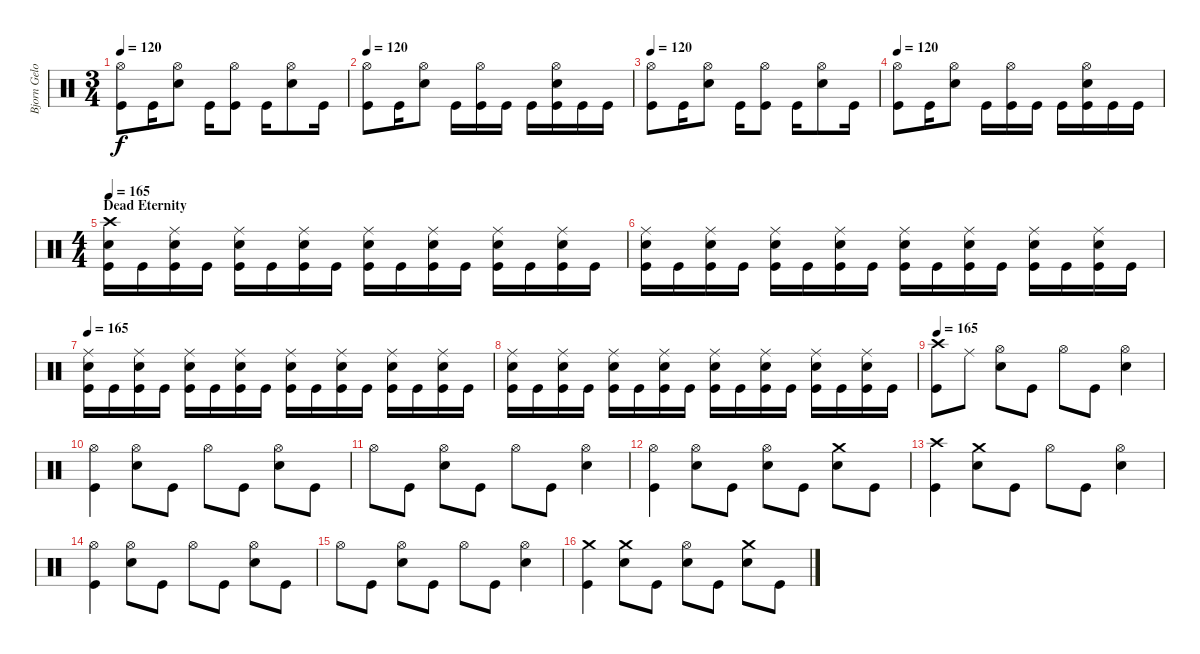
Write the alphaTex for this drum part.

\track ("Bjorn Gelotte-Drum" "Bjorn Gelo") {instrument percussion}
\staff {score}
\articulation defaults
\ts (3 4)
\tempo 120
\clef neutral
\ks c
("Hi-Hat (open)" "Kick (hit)").8{dy f} "Kick (hit)".16 ("Hi-Hat (open)" "Electric Snare (hit)").8 "Kick (hit)".16 ("Hi-Hat (open)" "Kick (hit)").8 "Kick (hit)".16 ("Hi-Hat (open)" "Electric Snare (hit)").8 "Kick (hit)".16 |
\tempo 120
("Hi-Hat (open)" "Kick (hit)").8 "Kick (hit)".16 ("Hi-Hat (open)" "Electric Snare (hit)").8 "Kick (hit)".16 ("Hi-Hat (open)" "Kick (hit)").16 "Kick (hit)".16 "Kick (hit)".16 ("Hi-Hat (open)" "Electric Snare (hit)" "Kick (hit)").16 "Kick (hit)".16 "Kick (hit)".16 |
\tempo 120
("Hi-Hat (open)" "Kick (hit)").8 "Kick (hit)".16 ("Hi-Hat (open)" "Electric Snare (hit)").8 "Kick (hit)".16 ("Hi-Hat (open)" "Kick (hit)").8 "Kick (hit)".16 ("Hi-Hat (open)" "Electric Snare (hit)").8 "Kick (hit)".16 |
\tempo 120
("Hi-Hat (open)" "Kick (hit)").8 "Kick (hit)".16 ("Hi-Hat (open)" "Electric Snare (hit)").8 "Kick (hit)".16 ("Hi-Hat (open)" "Kick (hit)").16 "Kick (hit)".16 "Kick (hit)".16 ("Hi-Hat (open)" "Electric Snare (hit)" "Kick (hit)").16 "Kick (hit)".16 "Kick (hit)".16 |
\ts (4 4)
\section ("" "Dead Eternity")
\tempo 165
("Crash high (hit)" "Electric Snare (hit)" "Kick (hit)").16 "Kick (hit)".16 ("Ride (middle)" "Electric Snare (hit)" "Kick (hit)").16 "Kick (hit)".16 ("Ride (middle)" "Electric Snare (hit)" "Kick (hit)").16 "Kick (hit)".16 ("Ride (middle)" "Electric Snare (hit)" "Kick (hit)").16 "Kick (hit)".16 ("Ride (middle)" "Electric Snare (hit)" "Kick (hit)").16 "Kick (hit)".16 ("Ride (middle)" "Electric Snare (hit)" "Kick (hit)").16 "Kick (hit)".16 ("Ride (middle)" "Electric Snare (hit)" "Kick (hit)").16 "Kick (hit)".16 ("Ride (middle)" "Electric Snare (hit)" "Kick (hit)").16 "Kick (hit)".16 |
("Ride (middle)" "Electric Snare (hit)" "Kick (hit)").16 "Kick (hit)".16 ("Ride (middle)" "Electric Snare (hit)" "Kick (hit)").16 "Kick (hit)".16 ("Ride (middle)" "Electric Snare (hit)" "Kick (hit)").16 "Kick (hit)".16 ("Ride (middle)" "Electric Snare (hit)" "Kick (hit)").16 "Kick (hit)".16 ("Ride (middle)" "Electric Snare (hit)" "Kick (hit)").16 "Kick (hit)".16 ("Ride (middle)" "Electric Snare (hit)" "Kick (hit)").16 "Kick (hit)".16 ("Ride (middle)" "Electric Snare (hit)" "Kick (hit)").16 "Kick (hit)".16 ("Ride (middle)" "Electric Snare (hit)" "Kick (hit)").16 "Kick (hit)".16 |
\tempo 165
("Ride (middle)" "Electric Snare (hit)" "Kick (hit)").16 "Kick (hit)".16 ("Ride (middle)" "Electric Snare (hit)" "Kick (hit)").16 "Kick (hit)".16 ("Ride (middle)" "Electric Snare (hit)" "Kick (hit)").16 "Kick (hit)".16 ("Ride (middle)" "Electric Snare (hit)" "Kick (hit)").16 "Kick (hit)".16 ("Ride (middle)" "Electric Snare (hit)" "Kick (hit)").16 "Kick (hit)".16 ("Ride (middle)" "Electric Snare (hit)" "Kick (hit)").16 "Kick (hit)".16 ("Ride (middle)" "Electric Snare (hit)" "Kick (hit)").16 "Kick (hit)".16 ("Ride (middle)" "Electric Snare (hit)" "Kick (hit)").16 "Kick (hit)".16 |
("Ride (middle)" "Electric Snare (hit)" "Kick (hit)").16 "Kick (hit)".16 ("Ride (middle)" "Electric Snare (hit)" "Kick (hit)").16 "Kick (hit)".16 ("Ride (middle)" "Electric Snare (hit)" "Kick (hit)").16 "Kick (hit)".16 ("Ride (middle)" "Electric Snare (hit)" "Kick (hit)").16 "Kick (hit)".16 ("Ride (middle)" "Electric Snare (hit)" "Kick (hit)").16 "Kick (hit)".16 ("Ride (middle)" "Electric Snare (hit)" "Kick (hit)").16 "Kick (hit)".16 ("Ride (middle)" "Electric Snare (hit)" "Kick (hit)").16 "Kick (hit)".16 ("Ride (middle)" "Electric Snare (hit)" "Kick (hit)").16 "Kick (hit)".16 |
\tempo 165
("Crash high (hit)" "Kick (hit)").8 "Ride (middle)".8 ("Hi-Hat (open)" "Electric Snare (hit)").8 "Kick (hit)".8 "Hi-Hat (open)".8 "Kick (hit)".8 ("Hi-Hat (open)" "Electric Snare (hit)").4 |
("Hi-Hat (open)" "Kick (hit)").4 ("Hi-Hat (open)" "Electric Snare (hit)").8 "Kick (hit)".8 "Hi-Hat (open)".8 "Kick (hit)".8 ("Hi-Hat (open)" "Electric Snare (hit)").8 "Kick (hit)".8 |
"Hi-Hat (open)".8 "Kick (hit)".8 ("Hi-Hat (open)" "Electric Snare (hit)").8 "Kick (hit)".8 "Hi-Hat (open)".8 "Kick (hit)".8 ("Hi-Hat (open)" "Electric Snare (hit)").4 |
("Hi-Hat (open)" "Kick (hit)").4 ("Hi-Hat (open)" "Electric Snare (hit)").8 "Kick (hit)".8 ("Hi-Hat (open)" "Electric Snare (hit)").8 "Kick (hit)".8 ("Crash medium (hit)" "Electric Snare (hit)").8 "Kick (hit)".8 |
("Crash high (hit)" "Kick (hit)").4 ("Crash medium (hit)" "Electric Snare (hit)").8 "Kick (hit)".8 "Hi-Hat (open)".8 "Kick (hit)".8 ("Hi-Hat (open)" "Electric Snare (hit)").4 |
("Hi-Hat (open)" "Kick (hit)").4 ("Hi-Hat (open)" "Electric Snare (hit)").8 "Kick (hit)".8 "Hi-Hat (open)".8 "Kick (hit)".8 ("Hi-Hat (open)" "Electric Snare (hit)").8 "Kick (hit)".8 |
"Hi-Hat (open)".8 "Kick (hit)".8 ("Hi-Hat (open)" "Electric Snare (hit)").8 "Kick (hit)".8 "Hi-Hat (open)".8 "Kick (hit)".8 ("Hi-Hat (open)" "Electric Snare (hit)").4 |
("Crash medium (hit)" "Kick (hit)").4 ("Crash medium (hit)" "Electric Snare (hit)").8 "Kick (hit)".8 ("Hi-Hat (open)" "Electric Snare (hit)").8 "Kick (hit)".8 ("Crash medium (hit)" "Electric Snare (hit)").8 "Kick (hit)".8
